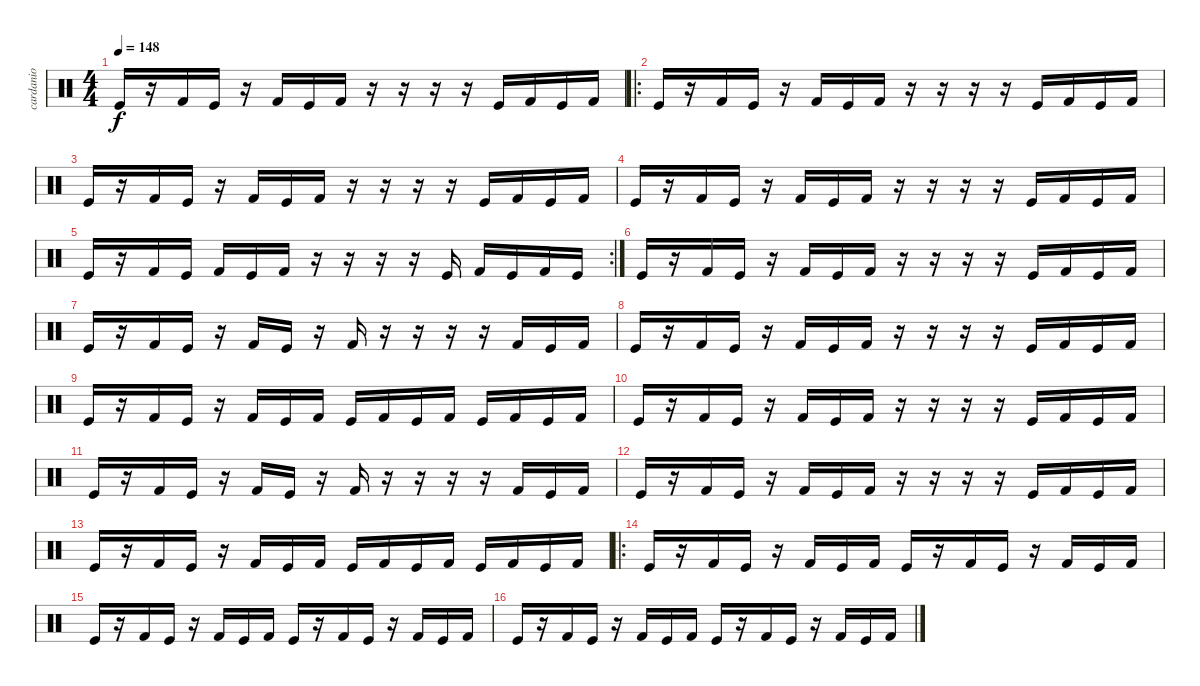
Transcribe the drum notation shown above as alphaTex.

\track ("cardanio" "cardanio") {instrument percussion}
\staff {score}
\articulation defaults
\ts (4 4)
\tempo 148
\clef neutral
\ks c "Kick (hit)".16{dy f}
r.16 "Kick (hit) 2".16 "Kick (hit)".16 r.16 "Kick (hit) 2".16 "Kick (hit)".16 "Kick (hit) 2".16 r.16 r.16 r.16 r.16 "Kick (hit)".16 "Kick (hit) 2".16 "Kick (hit)".16 "Kick (hit) 2".16 |
\ro "Kick (hit)".16
r.16 "Kick (hit) 2".16 "Kick (hit)".16 r.16 "Kick (hit) 2".16 "Kick (hit)".16 "Kick (hit) 2".16 r.16 r.16 r.16 r.16 "Kick (hit)".16 "Kick (hit) 2".16 "Kick (hit)".16 "Kick (hit) 2".16 |
"Kick (hit)".16 r.16 "Kick (hit) 2".16 "Kick (hit)".16 r.16 "Kick (hit) 2".16 "Kick (hit)".16 "Kick (hit) 2".16 r.16 r.16 r.16 r.16 "Kick (hit)".16 "Kick (hit) 2".16 "Kick (hit)".16 "Kick (hit) 2".16 |
"Kick (hit)".16 r.16 "Kick (hit) 2".16 "Kick (hit)".16 r.16 "Kick (hit) 2".16 "Kick (hit)".16 "Kick (hit) 2".16 r.16 r.16 r.16 r.16 "Kick (hit)".16 "Kick (hit) 2".16 "Kick (hit)".16 "Kick (hit) 2".16 |
\rc 2 "Kick (hit)".16
r.16 "Kick (hit) 2".16 "Kick (hit)".16 "Kick (hit) 2".16 "Kick (hit)".16 "Kick (hit) 2".16 r.16 r.16 r.16 r.16 "Kick (hit)".16 "Kick (hit) 2".16 "Kick (hit)".16 "Kick (hit) 2".16 "Kick (hit)".16 |
"Kick (hit)".16 r.16 "Kick (hit) 2".16 "Kick (hit)".16 r.16 "Kick (hit) 2".16 "Kick (hit)".16 "Kick (hit) 2".16 r.16 r.16 r.16 r.16 "Kick (hit)".16 "Kick (hit) 2".16 "Kick (hit)".16 "Kick (hit) 2".16 |
"Kick (hit)".16 r.16 "Kick (hit) 2".16 "Kick (hit)".16 r.16 "Kick (hit) 2".16 "Kick (hit)".16 r.16 "Kick (hit) 2".16 r.16 r.16 r.16 r.16 "Kick (hit) 2".16 "Kick (hit)".16 "Kick (hit) 2".16 |
"Kick (hit)".16 r.16 "Kick (hit) 2".16 "Kick (hit)".16 r.16 "Kick (hit) 2".16 "Kick (hit)".16 "Kick (hit) 2".16 r.16 r.16 r.16 r.16 "Kick (hit)".16 "Kick (hit) 2".16 "Kick (hit)".16 "Kick (hit) 2".16 |
"Kick (hit)".16 r.16 "Kick (hit) 2".16 "Kick (hit)".16 r.16 "Kick (hit) 2".16 "Kick (hit)".16 "Kick (hit) 2".16 "Kick (hit)".16 "Kick (hit) 2".16 "Kick (hit)".16 "Kick (hit) 2".16 "Kick (hit)".16 "Kick (hit) 2".16 "Kick (hit)".16 "Kick (hit) 2".16 |
"Kick (hit)".16 r.16 "Kick (hit) 2".16 "Kick (hit)".16 r.16 "Kick (hit) 2".16 "Kick (hit)".16 "Kick (hit) 2".16 r.16 r.16 r.16 r.16 "Kick (hit)".16 "Kick (hit) 2".16 "Kick (hit)".16 "Kick (hit) 2".16 |
"Kick (hit)".16 r.16 "Kick (hit) 2".16 "Kick (hit)".16 r.16 "Kick (hit) 2".16 "Kick (hit)".16 r.16 "Kick (hit) 2".16 r.16 r.16 r.16 r.16 "Kick (hit) 2".16 "Kick (hit)".16 "Kick (hit) 2".16 |
"Kick (hit)".16 r.16 "Kick (hit) 2".16 "Kick (hit)".16 r.16 "Kick (hit) 2".16 "Kick (hit)".16 "Kick (hit) 2".16 r.16 r.16 r.16 r.16 "Kick (hit)".16 "Kick (hit) 2".16 "Kick (hit)".16 "Kick (hit) 2".16 |
"Kick (hit)".16 r.16 "Kick (hit) 2".16 "Kick (hit)".16 r.16 "Kick (hit) 2".16 "Kick (hit)".16 "Kick (hit) 2".16 "Kick (hit)".16 "Kick (hit) 2".16 "Kick (hit)".16 "Kick (hit) 2".16 "Kick (hit)".16 "Kick (hit) 2".16 "Kick (hit)".16 "Kick (hit) 2".16 |
\ro "Kick (hit)".16
r.16 "Kick (hit) 2".16 "Kick (hit)".16 r.16 "Kick (hit) 2".16 "Kick (hit)".16 "Kick (hit) 2".16 "Kick (hit)".16 r.16 "Kick (hit) 2".16 "Kick (hit)".16 r.16 "Kick (hit) 2".16 "Kick (hit)".16 "Kick (hit) 2".16 |
"Kick (hit)".16 r.16 "Kick (hit) 2".16 "Kick (hit)".16 r.16 "Kick (hit) 2".16 "Kick (hit)".16 "Kick (hit) 2".16 "Kick (hit)".16 r.16 "Kick (hit) 2".16 "Kick (hit)".16 r.16 "Kick (hit) 2".16 "Kick (hit)".16 "Kick (hit) 2".16 |
"Kick (hit)".16 r.16 "Kick (hit) 2".16 "Kick (hit)".16 r.16 "Kick (hit) 2".16 "Kick (hit)".16 "Kick (hit) 2".16 "Kick (hit)".16 r.16 "Kick (hit) 2".16 "Kick (hit)".16 r.16 "Kick (hit) 2".16 "Kick (hit)".16 "Kick (hit) 2".16
